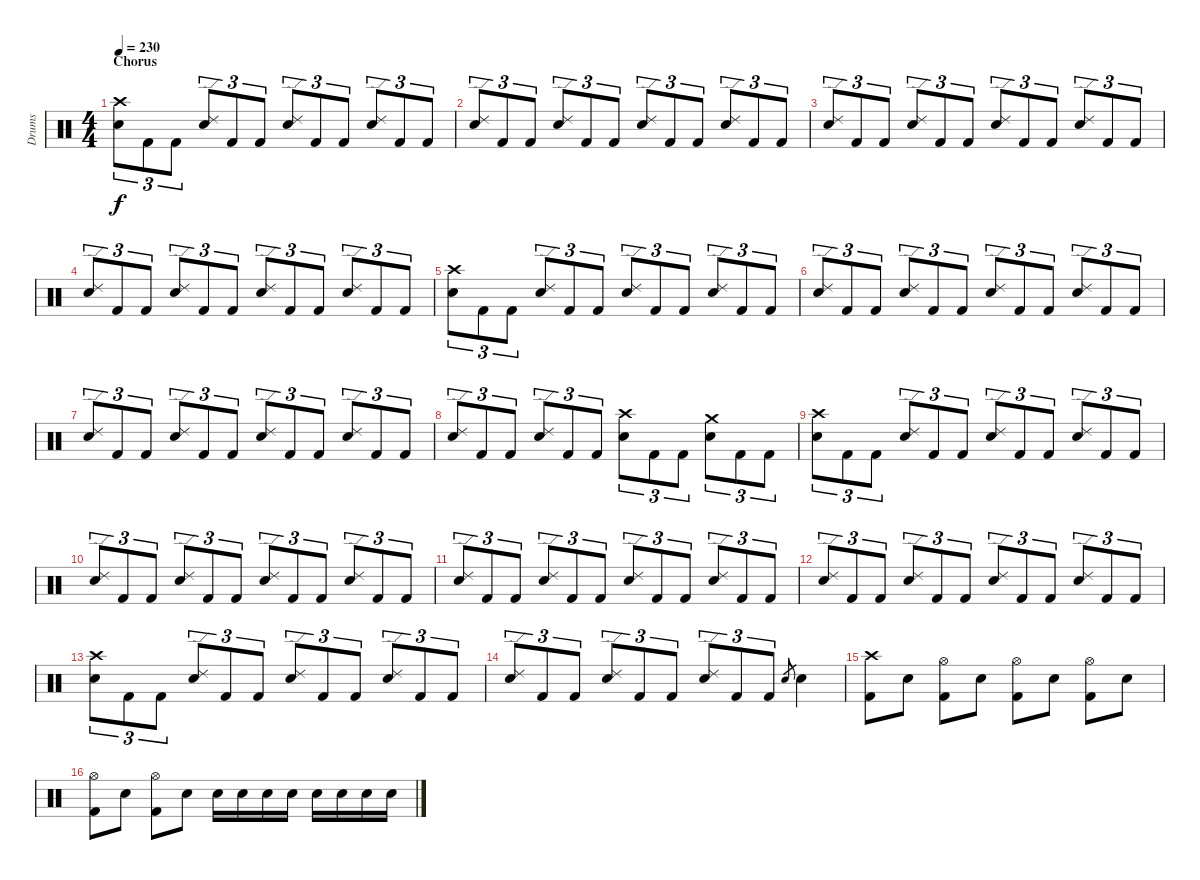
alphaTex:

\track ("Drums" "Drums") {instrument percussion}
\staff {score}
\articulation defaults
\ts (4 4)
\section ("" "Chorus")
\tempo 230
\clef neutral
\ks c
("Crash high (hit)" "Electric Snare (hit)").8{tu (3 2) dy f} "Kick (hit) 2".8{tu (3 2)} "Kick (hit) 2".8{tu (3 2)} ("Ride (edge) 2" "Electric Snare (hit)").8{tu (3 2)} "Kick (hit) 2".8{tu (3 2)} "Kick (hit) 2".8{tu (3 2)} ("Ride (edge) 2" "Electric Snare (hit)").8{tu (3 2)} "Kick (hit) 2".8{tu (3 2)} "Kick (hit) 2".8{tu (3 2)} ("Ride (edge) 2" "Electric Snare (hit)").8{tu (3 2)} "Kick (hit) 2".8{tu (3 2)} "Kick (hit) 2".8{tu (3 2)} |
("Ride (edge) 2" "Electric Snare (hit)").8{tu (3 2)} "Kick (hit) 2".8{tu (3 2)} "Kick (hit) 2".8{tu (3 2)} ("Ride (edge) 2" "Electric Snare (hit)").8{tu (3 2)} "Kick (hit) 2".8{tu (3 2)} "Kick (hit) 2".8{tu (3 2)} ("Ride (edge) 2" "Electric Snare (hit)").8{tu (3 2)} "Kick (hit) 2".8{tu (3 2)} "Kick (hit) 2".8{tu (3 2)} ("Ride (edge) 2" "Electric Snare (hit)").8{tu (3 2)} "Kick (hit) 2".8{tu (3 2)} "Kick (hit) 2".8{tu (3 2)} |
("Ride (edge) 2" "Electric Snare (hit)").8{tu (3 2)} "Kick (hit) 2".8{tu (3 2)} "Kick (hit) 2".8{tu (3 2)} ("Ride (edge) 2" "Electric Snare (hit)").8{tu (3 2)} "Kick (hit) 2".8{tu (3 2)} "Kick (hit) 2".8{tu (3 2)} ("Ride (edge) 2" "Electric Snare (hit)").8{tu (3 2)} "Kick (hit) 2".8{tu (3 2)} "Kick (hit) 2".8{tu (3 2)} ("Ride (edge) 2" "Electric Snare (hit)").8{tu (3 2)} "Kick (hit) 2".8{tu (3 2)} "Kick (hit) 2".8{tu (3 2)} |
("Ride (edge) 2" "Electric Snare (hit)").8{tu (3 2)} "Kick (hit) 2".8{tu (3 2)} "Kick (hit) 2".8{tu (3 2)} ("Ride (edge) 2" "Electric Snare (hit)").8{tu (3 2)} "Kick (hit) 2".8{tu (3 2)} "Kick (hit) 2".8{tu (3 2)} ("Ride (edge) 2" "Electric Snare (hit)").8{tu (3 2)} "Kick (hit) 2".8{tu (3 2)} "Kick (hit) 2".8{tu (3 2)} ("Ride (edge) 2" "Electric Snare (hit)").8{tu (3 2)} "Kick (hit) 2".8{tu (3 2)} "Kick (hit) 2".8{tu (3 2)} |
("Crash high (hit)" "Electric Snare (hit)").8{tu (3 2)} "Kick (hit) 2".8{tu (3 2)} "Kick (hit) 2".8{tu (3 2)} ("Ride (edge) 2" "Electric Snare (hit)").8{tu (3 2)} "Kick (hit) 2".8{tu (3 2)} "Kick (hit) 2".8{tu (3 2)} ("Ride (edge) 2" "Electric Snare (hit)").8{tu (3 2)} "Kick (hit) 2".8{tu (3 2)} "Kick (hit) 2".8{tu (3 2)} ("Ride (edge) 2" "Electric Snare (hit)").8{tu (3 2)} "Kick (hit) 2".8{tu (3 2)} "Kick (hit) 2".8{tu (3 2)} |
("Ride (edge) 2" "Electric Snare (hit)").8{tu (3 2)} "Kick (hit) 2".8{tu (3 2)} "Kick (hit) 2".8{tu (3 2)} ("Ride (edge) 2" "Electric Snare (hit)").8{tu (3 2)} "Kick (hit) 2".8{tu (3 2)} "Kick (hit) 2".8{tu (3 2)} ("Ride (edge) 2" "Electric Snare (hit)").8{tu (3 2)} "Kick (hit) 2".8{tu (3 2)} "Kick (hit) 2".8{tu (3 2)} ("Ride (edge) 2" "Electric Snare (hit)").8{tu (3 2)} "Kick (hit) 2".8{tu (3 2)} "Kick (hit) 2".8{tu (3 2)} |
("Ride (edge) 2" "Electric Snare (hit)").8{tu (3 2)} "Kick (hit) 2".8{tu (3 2)} "Kick (hit) 2".8{tu (3 2)} ("Ride (edge) 2" "Electric Snare (hit)").8{tu (3 2)} "Kick (hit) 2".8{tu (3 2)} "Kick (hit) 2".8{tu (3 2)} ("Ride (edge) 2" "Electric Snare (hit)").8{tu (3 2)} "Kick (hit) 2".8{tu (3 2)} "Kick (hit) 2".8{tu (3 2)} ("Ride (edge) 2" "Electric Snare (hit)").8{tu (3 2)} "Kick (hit) 2".8{tu (3 2)} "Kick (hit) 2".8{tu (3 2)} |
("Ride (edge) 2" "Electric Snare (hit)").8{tu (3 2)} "Kick (hit) 2".8{tu (3 2)} "Kick (hit) 2".8{tu (3 2)} ("Ride (edge) 2" "Electric Snare (hit)").8{tu (3 2)} "Kick (hit) 2".8{tu (3 2)} "Kick (hit) 2".8{tu (3 2)} ("Crash high (hit)" "Electric Snare (hit)").8{tu (3 2)} "Kick (hit) 2".8{tu (3 2)} "Kick (hit) 2".8{tu (3 2)} ("Crash medium (hit)" "Electric Snare (hit)").8{tu (3 2)} "Kick (hit) 2".8{tu (3 2)} "Kick (hit) 2".8{tu (3 2)} |
("Crash high (hit)" "Electric Snare (hit)").8{tu (3 2)} "Kick (hit) 2".8{tu (3 2)} "Kick (hit) 2".8{tu (3 2)} ("Ride (edge) 2" "Electric Snare (hit)").8{tu (3 2)} "Kick (hit) 2".8{tu (3 2)} "Kick (hit) 2".8{tu (3 2)} ("Ride (edge) 2" "Electric Snare (hit)").8{tu (3 2)} "Kick (hit) 2".8{tu (3 2)} "Kick (hit) 2".8{tu (3 2)} ("Ride (edge) 2" "Electric Snare (hit)").8{tu (3 2)} "Kick (hit) 2".8{tu (3 2)} "Kick (hit) 2".8{tu (3 2)} |
("Ride (edge) 2" "Electric Snare (hit)").8{tu (3 2)} "Kick (hit) 2".8{tu (3 2)} "Kick (hit) 2".8{tu (3 2)} ("Ride (edge) 2" "Electric Snare (hit)").8{tu (3 2)} "Kick (hit) 2".8{tu (3 2)} "Kick (hit) 2".8{tu (3 2)} ("Ride (edge) 2" "Electric Snare (hit)").8{tu (3 2)} "Kick (hit) 2".8{tu (3 2)} "Kick (hit) 2".8{tu (3 2)} ("Ride (edge) 2" "Electric Snare (hit)").8{tu (3 2)} "Kick (hit) 2".8{tu (3 2)} "Kick (hit) 2".8{tu (3 2)} |
("Ride (edge) 2" "Electric Snare (hit)").8{tu (3 2)} "Kick (hit) 2".8{tu (3 2)} "Kick (hit) 2".8{tu (3 2)} ("Ride (edge) 2" "Electric Snare (hit)").8{tu (3 2)} "Kick (hit) 2".8{tu (3 2)} "Kick (hit) 2".8{tu (3 2)} ("Ride (edge) 2" "Electric Snare (hit)").8{tu (3 2)} "Kick (hit) 2".8{tu (3 2)} "Kick (hit) 2".8{tu (3 2)} ("Ride (edge) 2" "Electric Snare (hit)").8{tu (3 2)} "Kick (hit) 2".8{tu (3 2)} "Kick (hit) 2".8{tu (3 2)} |
("Ride (edge) 2" "Electric Snare (hit)").8{tu (3 2)} "Kick (hit) 2".8{tu (3 2)} "Kick (hit) 2".8{tu (3 2)} ("Ride (edge) 2" "Electric Snare (hit)").8{tu (3 2)} "Kick (hit) 2".8{tu (3 2)} "Kick (hit) 2".8{tu (3 2)} ("Ride (edge) 2" "Electric Snare (hit)").8{tu (3 2)} "Kick (hit) 2".8{tu (3 2)} "Kick (hit) 2".8{tu (3 2)} ("Ride (edge) 2" "Electric Snare (hit)").8{tu (3 2)} "Kick (hit) 2".8{tu (3 2)} "Kick (hit) 2".8{tu (3 2)} |
("Crash high (hit)" "Electric Snare (hit)").8{tu (3 2)} "Kick (hit) 2".8{tu (3 2)} "Kick (hit) 2".8{tu (3 2)} ("Ride (edge) 2" "Electric Snare (hit)").8{tu (3 2)} "Kick (hit) 2".8{tu (3 2)} "Kick (hit) 2".8{tu (3 2)} ("Ride (edge) 2" "Electric Snare (hit)").8{tu (3 2)} "Kick (hit) 2".8{tu (3 2)} "Kick (hit) 2".8{tu (3 2)} ("Ride (edge) 2" "Electric Snare (hit)").8{tu (3 2)} "Kick (hit) 2".8{tu (3 2)} "Kick (hit) 2".8{tu (3 2)} |
("Ride (edge) 2" "Electric Snare (hit)").8{tu (3 2)} "Kick (hit) 2".8{tu (3 2)} "Kick (hit) 2".8{tu (3 2)} ("Ride (edge) 2" "Electric Snare (hit)").8{tu (3 2)} "Kick (hit) 2".8{tu (3 2)} "Kick (hit) 2".8{tu (3 2)} ("Ride (edge) 2" "Electric Snare (hit)").8{tu (3 2)} "Kick (hit) 2".8{tu (3 2)} "Kick (hit) 2".8{tu (3 2)} "Electric Snare (hit)".8{gr} "Electric Snare (hit)".4 |
("Crash high (hit)" "Kick (hit) 2").8 "Electric Snare (hit)".8 ("Hi-Hat (open)" "Kick (hit) 2").8 "Electric Snare (hit)".8 ("Hi-Hat (open)" "Kick (hit) 2").8 "Electric Snare (hit)".8 ("Hi-Hat (open)" "Kick (hit) 2").8 "Electric Snare (hit)".8 |
("Hi-Hat (open)" "Kick (hit) 2").8 "Electric Snare (hit)".8 ("Hi-Hat (open)" "Kick (hit) 2").8 "Electric Snare (hit)".8 "Electric Snare (hit)".16 "Electric Snare (hit)".16 "Electric Snare (hit)".16 "Electric Snare (hit)".16 "Electric Snare (hit)".16 "Electric Snare (hit)".16 "Electric Snare (hit)".16 "Electric Snare (hit)".16
